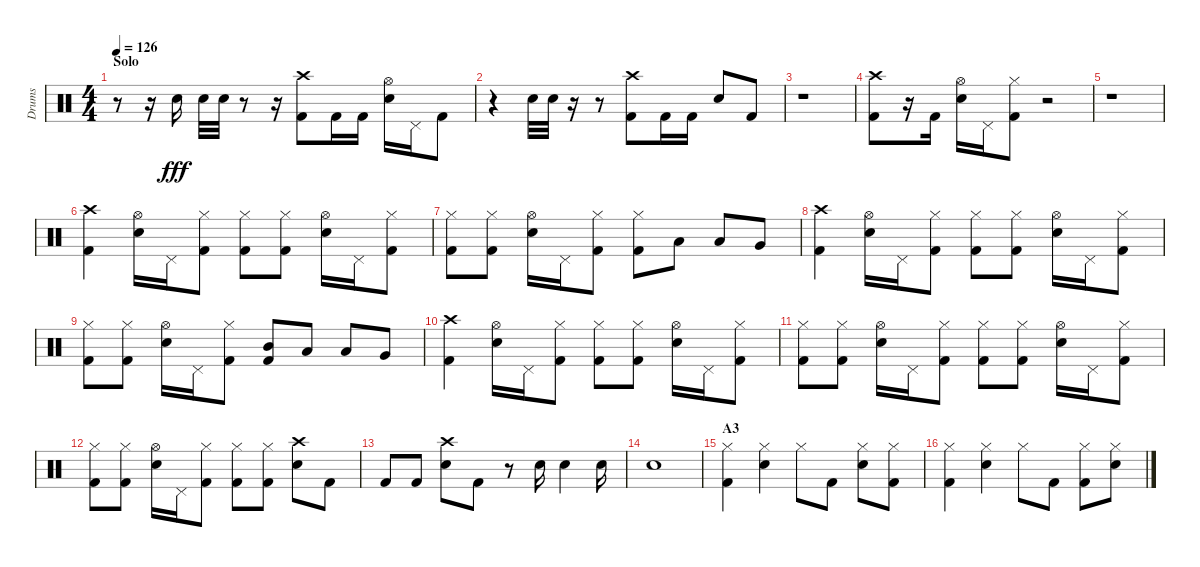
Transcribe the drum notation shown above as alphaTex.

\track ("Drums" "Drums") {instrument percussion}
\staff {score}
\articulation defaults
\ts (4 4)
\section ("" "Solo")
\tempo 126
\clef neutral
\ks c
r.8{dy fff} r.16 "Electric Snare (hit)".16 "Electric Snare (hit)".32 "Electric Snare (hit)".32 r.8 r.16 ("Crash high (hit)" "Kick (hit) 2").8 "Kick (hit) 2".16 "Kick (hit) 2".16 ("Hi-Hat (open)" "Electric Snare (hit)").16 "Pedal Hi-Hat (hit)".16 "Kick (hit) 2".8 |
r.4 "Electric Snare (hit)".32 "Electric Snare (hit)".32 r.16 r.8 ("Crash high (hit)" "Kick (hit) 2").8 "Kick (hit) 2".16 "Kick (hit) 2".16 "Electric Snare (hit)".8 "Kick (hit) 2".8 |
r.1 |
("Crash high (hit)" "Kick (hit) 2").8 r.16 "Kick (hit) 2".16 ("Hi-Hat (open)" "Electric Snare (hit)").16 "Pedal Hi-Hat (hit)".16 ("Hi-Hat (closed)" "Kick (hit) 2").8 r.2 |
r.1 |
("Crash high (hit)" "Kick (hit) 2").4 ("Hi-Hat (open)" "Snare (hit) 2").16 "Pedal Hi-Hat (hit)".16 ("Hi-Hat (closed)" "Kick (hit) 2").8 ("Hi-Hat (closed)" "Kick (hit) 2").8 ("Hi-Hat (closed)" "Kick (hit) 2").8 ("Hi-Hat (open)" "Snare (hit) 2").16 "Pedal Hi-Hat (hit)".16 ("Hi-Hat (closed)" "Kick (hit) 2").8 |
("Hi-Hat (closed)" "Kick (hit) 2").8 ("Hi-Hat (closed)" "Kick (hit) 2").8 ("Hi-Hat (open)" "Snare (hit) 2").16 "Pedal Hi-Hat (hit)".16 ("Hi-Hat (closed)" "Kick (hit) 2").8 ("Hi-Hat (closed)" "Kick (hit) 2").8 "Low Tom (hit)".8 "Low Tom (hit)".8 "Very Low Tom (hit)".8 |
("Crash high (hit)" "Kick (hit) 2").4 ("Hi-Hat (open)" "Snare (hit) 2").16 "Pedal Hi-Hat (hit)".16 ("Hi-Hat (closed)" "Kick (hit) 2").8 ("Hi-Hat (closed)" "Kick (hit) 2").8 ("Hi-Hat (closed)" "Kick (hit) 2").8 ("Hi-Hat (open)" "Snare (hit) 2").16 "Pedal Hi-Hat (hit)".16 ("Hi-Hat (closed)" "Kick (hit) 2").8 |
("Hi-Hat (closed)" "Kick (hit) 2").8 ("Hi-Hat (closed)" "Kick (hit) 2").8 ("Hi-Hat (open)" "Snare (hit) 2").16 "Pedal Hi-Hat (hit)".16 ("Hi-Hat (closed)" "Kick (hit) 2").8 ("Mid Tom (hit)" "Kick (hit) 2").8 "Low Tom (hit)".8 "Low Tom (hit)".8 "Very Low Tom (hit)".8 |
("Crash high (hit)" "Kick (hit) 2").4 ("Hi-Hat (open)" "Snare (hit) 2").16 "Pedal Hi-Hat (hit)".16 ("Hi-Hat (closed)" "Kick (hit) 2").8 ("Hi-Hat (closed)" "Kick (hit) 2").8 ("Hi-Hat (closed)" "Kick (hit) 2").8 ("Hi-Hat (open)" "Snare (hit) 2").16 "Pedal Hi-Hat (hit)".16 ("Hi-Hat (closed)" "Kick (hit) 2").8 |
("Hi-Hat (closed)" "Kick (hit) 2").8 ("Hi-Hat (closed)" "Kick (hit) 2").8 ("Hi-Hat (open)" "Snare (hit) 2").16 "Pedal Hi-Hat (hit)".16 ("Hi-Hat (closed)" "Kick (hit) 2").8 ("Hi-Hat (closed)" "Kick (hit) 2").8 ("Hi-Hat (closed)" "Kick (hit) 2").8 ("Hi-Hat (open)" "Snare (hit) 2").16 "Pedal Hi-Hat (hit)".16 ("Hi-Hat (closed)" "Kick (hit) 2").8 |
("Hi-Hat (closed)" "Kick (hit) 2").8 ("Hi-Hat (closed)" "Kick (hit) 2").8 ("Hi-Hat (open)" "Snare (hit) 2").16 "Pedal Hi-Hat (hit)".16 ("Hi-Hat (closed)" "Kick (hit) 2").8 ("Hi-Hat (closed)" "Kick (hit) 2").8 ("Hi-Hat (closed)" "Kick (hit) 2").8 ("Crash high (hit)" "Snare (hit) 2").8 "Kick (hit) 2".8 |
"Kick (hit) 2".8 "Kick (hit) 2".8 ("Crash high (hit)" "Snare (hit) 2").8 "Kick (hit) 2".8 r.8 "Snare (hit) 2".16 "Snare (hit) 2".4 "Snare (hit) 2".16 |
"Snare (hit) 2".1 |
\section ("" "A3")
("Hi-Hat (closed)" "Kick (hit) 2").4 ("Hi-Hat (closed)" "Snare (hit) 2").4 "Hi-Hat (closed)".8 "Kick (hit) 2".8 ("Hi-Hat (closed)" "Snare (hit) 2").8 ("Hi-Hat (closed)" "Kick (hit) 2").8 |
("Hi-Hat (closed)" "Kick (hit) 2").4 ("Hi-Hat (closed)" "Snare (hit) 2").4 "Hi-Hat (closed)".8 "Kick (hit) 2".8 ("Hi-Hat (closed)" "Kick (hit) 2").8 ("Hi-Hat (closed)" "Snare (hit) 2").8
